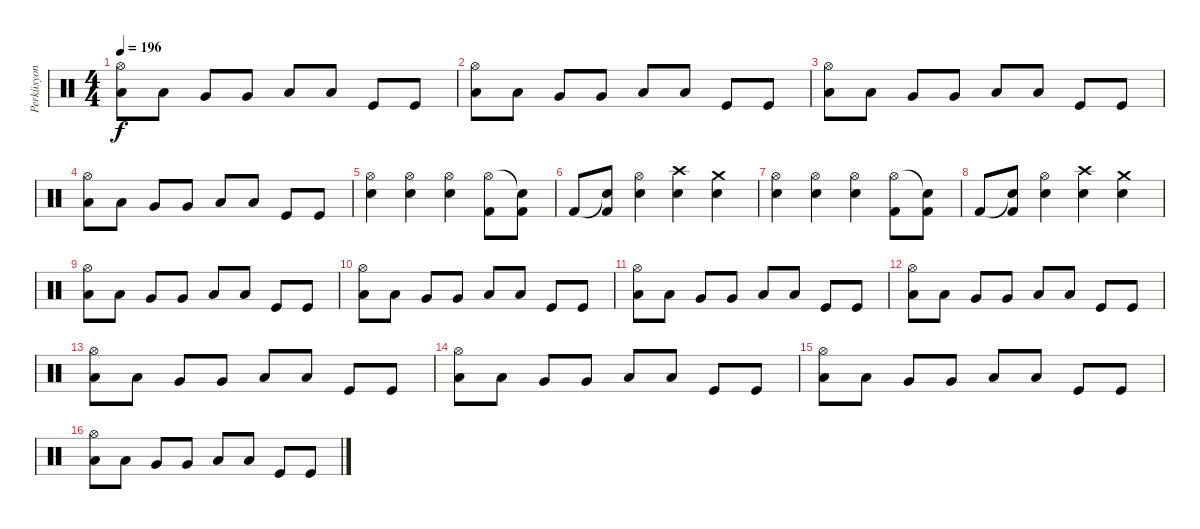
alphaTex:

\track ("Perküsyon" "Perküsyon") {instrument percussion}
\staff {score}
\articulation defaults
\ts (4 4)
\tempo 196
\clef neutral
\ks c
("Hi-Hat (open)" "Low Tom (hit)").8{dy f} "Low Tom (hit)".8 "Very Low Tom (hit)".8 "Very Low Tom (hit)".8 "Low Floor Tom (hit)".8 "Low Floor Tom (hit)".8 "Kick (hit)".8 "Kick (hit)".8 |
("Hi-Hat (open)" "Low Tom (hit)").8 "Low Tom (hit)".8 "Very Low Tom (hit)".8 "Very Low Tom (hit)".8 "Low Floor Tom (hit)".8 "Low Floor Tom (hit)".8 "Kick (hit)".8 "Kick (hit)".8 |
("Hi-Hat (open)" "Low Tom (hit)").8 "Low Tom (hit)".8 "Very Low Tom (hit)".8 "Very Low Tom (hit)".8 "Low Floor Tom (hit)".8 "Low Floor Tom (hit)".8 "Kick (hit)".8 "Kick (hit)".8 |
("Hi-Hat (open)" "Low Tom (hit)").8 "Low Tom (hit)".8 "Very Low Tom (hit)".8 "Very Low Tom (hit)".8 "Low Floor Tom (hit)".8 "Low Floor Tom (hit)".8 "Kick (hit)".8 "Kick (hit)".8 |
("Electric Snare (hit)" "Hi-Hat (open)").4 ("Electric Snare (hit)" "Hi-Hat (open)").4 ("Electric Snare (hit)" "Hi-Hat (open)").4 ("Hi-Hat (open)" "Kick (hit) 2").8 ("Snare (hit)"{t} "Kick (hit) 2").8 |
"Kick (hit) 2".8 ("Snare (hit)"{t} "Kick (hit) 2").8 ("Electric Snare (hit)" "Hi-Hat (open)").4 ("Snare (hit) 2" "Crash high (hit)").4 ("Crash medium (hit)" "Snare (hit) 2").4 |
("Electric Snare (hit)" "Hi-Hat (open)").4 ("Electric Snare (hit)" "Hi-Hat (open)").4 ("Electric Snare (hit)" "Hi-Hat (open)").4 ("Hi-Hat (open)" "Kick (hit) 2").8 ("Snare (hit)"{t} "Kick (hit) 2").8 |
"Kick (hit) 2".8 ("Snare (hit)"{t} "Kick (hit) 2").8 ("Electric Snare (hit)" "Hi-Hat (open)").4 ("Snare (hit) 2" "Crash high (hit)").4 ("Crash medium (hit)" "Snare (hit) 2").4 |
("Hi-Hat (open)" "Low Tom (hit)").8 "Low Tom (hit)".8 "Very Low Tom (hit)".8 "Very Low Tom (hit)".8 "Low Floor Tom (hit)".8 "Low Floor Tom (hit)".8 "Kick (hit)".8 "Kick (hit)".8 |
("Hi-Hat (open)" "Low Tom (hit)").8 "Low Tom (hit)".8 "Very Low Tom (hit)".8 "Very Low Tom (hit)".8 "Low Floor Tom (hit)".8 "Low Floor Tom (hit)".8 "Kick (hit)".8 "Kick (hit)".8 |
("Hi-Hat (open)" "Low Tom (hit)").8 "Low Tom (hit)".8 "Very Low Tom (hit)".8 "Very Low Tom (hit)".8 "Low Floor Tom (hit)".8 "Low Floor Tom (hit)".8 "Kick (hit)".8 "Kick (hit)".8 |
("Hi-Hat (open)" "Low Tom (hit)").8 "Low Tom (hit)".8 "Very Low Tom (hit)".8 "Very Low Tom (hit)".8 "Low Floor Tom (hit)".8 "Low Floor Tom (hit)".8 "Kick (hit)".8 "Kick (hit)".8 |
("Hi-Hat (open)" "Low Tom (hit)").8 "Low Tom (hit)".8 "Very Low Tom (hit)".8 "Very Low Tom (hit)".8 "Low Floor Tom (hit)".8 "Low Floor Tom (hit)".8 "Kick (hit)".8 "Kick (hit)".8 |
("Hi-Hat (open)" "Low Tom (hit)").8 "Low Tom (hit)".8 "Very Low Tom (hit)".8 "Very Low Tom (hit)".8 "Low Floor Tom (hit)".8 "Low Floor Tom (hit)".8 "Kick (hit)".8 "Kick (hit)".8 |
("Hi-Hat (open)" "Low Tom (hit)").8 "Low Tom (hit)".8 "Very Low Tom (hit)".8 "Very Low Tom (hit)".8 "Low Floor Tom (hit)".8 "Low Floor Tom (hit)".8 "Kick (hit)".8 "Kick (hit)".8 |
("Hi-Hat (open)" "Low Tom (hit)").8 "Low Tom (hit)".8 "Very Low Tom (hit)".8 "Very Low Tom (hit)".8 "Low Floor Tom (hit)".8 "Low Floor Tom (hit)".8 "Kick (hit)".8 "Kick (hit)".8
